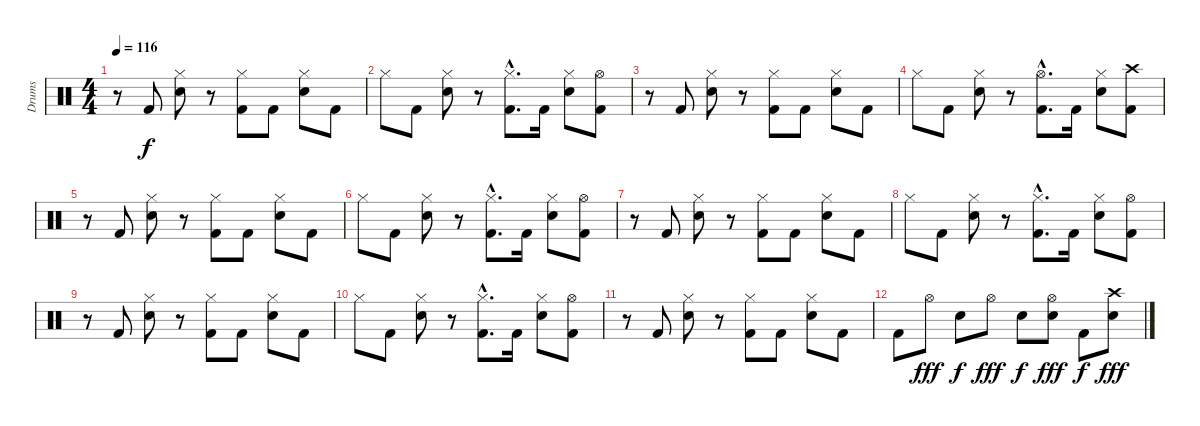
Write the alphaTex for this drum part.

\track ("Drums" "Drums") {instrument percussion}
\staff {score}
\articulation defaults
\ts (4 4)
\tempo 116
\clef neutral
\ks c
r.8{dy f} "Kick (hit) 2".8 ("Hi-Hat (closed)" "Snare (hit) 2").8 r.8 ("Hi-Hat (closed)" "Kick (hit) 2").8 "Kick (hit) 2".8 ("Hi-Hat (closed)" "Snare (hit) 2").8 "Kick (hit) 2".8 |
"Hi-Hat (closed)".8 "Kick (hit) 2".8 ("Hi-Hat (closed)" "Snare (hit) 2").8 r.8 ("Hi-Hat (closed)"{hac} "Kick (hit) 2"{hac}).8{d} "Kick (hit) 2".16 ("Hi-Hat (closed)" "Snare (hit) 2").8 ("Hi-Hat (open)" "Kick (hit) 2").8 |
r.8 "Kick (hit) 2".8 ("Hi-Hat (closed)" "Snare (hit) 2").8 r.8 ("Hi-Hat (closed)" "Kick (hit) 2").8 "Kick (hit) 2".8 ("Hi-Hat (closed)" "Snare (hit) 2").8 "Kick (hit) 2".8 |
"Hi-Hat (closed)".8 "Kick (hit) 2".8 ("Hi-Hat (closed)" "Snare (hit) 2").8 r.8 ("Hi-Hat (open)"{hac} "Kick (hit) 2"{hac}).8{d} "Kick (hit) 2".16 ("Hi-Hat (closed)" "Snare (hit) 2").8 ("Crash high (hit)" "Kick (hit) 2").8 |
r.8 "Kick (hit) 2".8 ("Hi-Hat (closed)" "Snare (hit) 2").8 r.8 ("Hi-Hat (closed)" "Kick (hit) 2").8 "Kick (hit) 2".8 ("Hi-Hat (closed)" "Snare (hit) 2").8 "Kick (hit) 2".8 |
"Hi-Hat (closed)".8 "Kick (hit) 2".8 ("Hi-Hat (closed)" "Snare (hit) 2").8 r.8 ("Hi-Hat (closed)"{hac} "Kick (hit) 2"{hac}).8{d} "Kick (hit) 2".16 ("Hi-Hat (closed)" "Snare (hit) 2").8 ("Hi-Hat (open)" "Kick (hit) 2").8 |
r.8 "Kick (hit) 2".8 ("Hi-Hat (closed)" "Snare (hit) 2").8 r.8 ("Hi-Hat (closed)" "Kick (hit) 2").8 "Kick (hit) 2".8 ("Hi-Hat (closed)" "Snare (hit) 2").8 "Kick (hit) 2".8 |
"Hi-Hat (closed)".8 "Kick (hit) 2".8 ("Hi-Hat (closed)" "Snare (hit) 2").8 r.8 ("Hi-Hat (closed)"{hac} "Kick (hit) 2"{hac}).8{d} "Kick (hit) 2".16 ("Hi-Hat (closed)" "Snare (hit) 2").8 ("Hi-Hat (open)" "Kick (hit) 2").8 |
r.8 "Kick (hit) 2".8 ("Hi-Hat (closed)" "Snare (hit) 2").8 r.8 ("Hi-Hat (closed)" "Kick (hit) 2").8 "Kick (hit) 2".8 ("Hi-Hat (closed)" "Snare (hit) 2").8 "Kick (hit) 2".8 |
"Hi-Hat (closed)".8 "Kick (hit) 2".8 ("Hi-Hat (closed)" "Snare (hit) 2").8 r.8 ("Hi-Hat (closed)"{hac} "Kick (hit) 2"{hac}).8{d} "Kick (hit) 2".16 ("Hi-Hat (closed)" "Snare (hit) 2").8 ("Hi-Hat (open)" "Kick (hit) 2").8 |
r.8 "Kick (hit) 2".8 ("Hi-Hat (closed)" "Snare (hit) 2").8 r.8 ("Hi-Hat (closed)" "Kick (hit) 2").8 "Kick (hit) 2".8 ("Hi-Hat (closed)" "Snare (hit) 2").8 "Kick (hit) 2".8 |
"Kick (hit) 2".8 "Hi-Hat (open)".8{dy fff} "Snare (hit) 2".8{dy f} "Hi-Hat (open)".8{dy fff} "Snare (hit) 2".8{dy f} ("Hi-Hat (open)" "Snare (hit) 2").8{dy fff} "Kick (hit) 2".8{dy f} ("Crash high (hit)" "Snare (hit) 2").8{dy fff}
